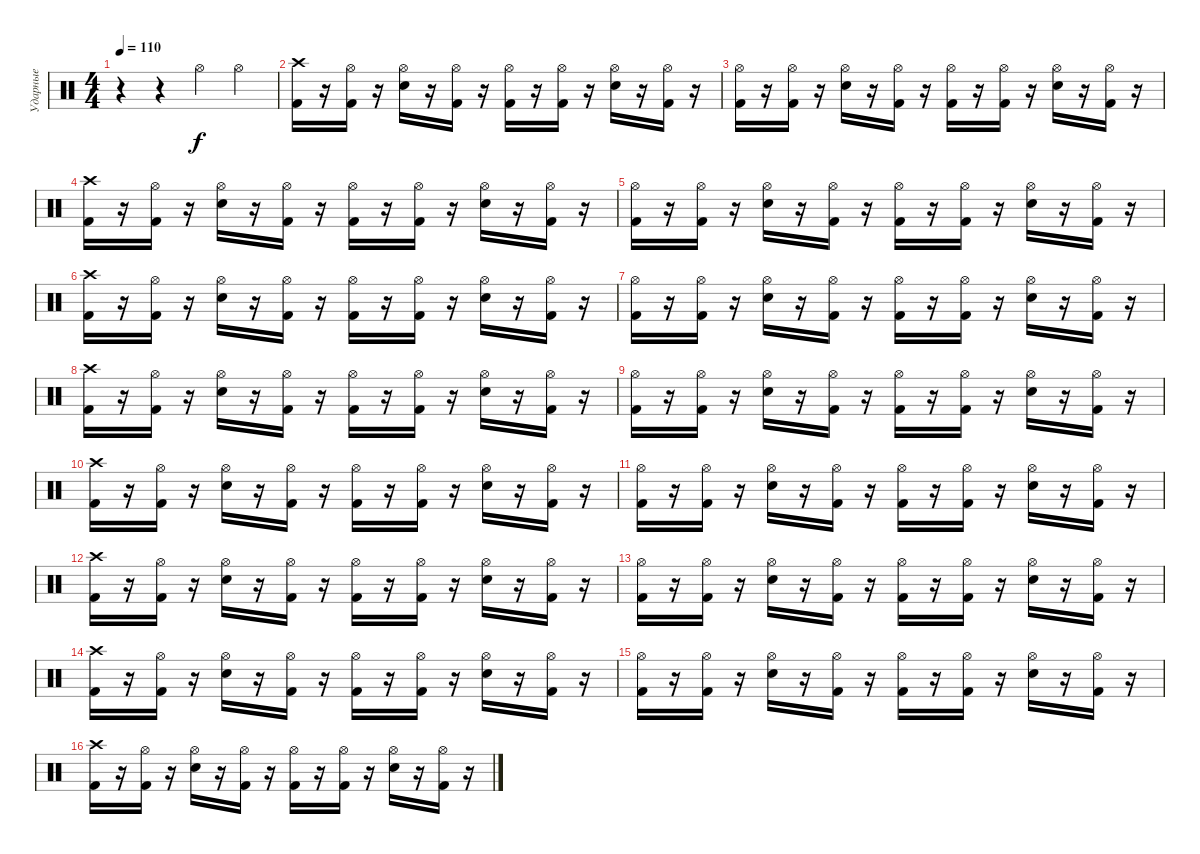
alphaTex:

\track ("Ударные" "Ударные") {instrument percussion}
\staff {score}
\articulation defaults
\ts (4 4)
\tempo 110
\clef neutral
\ks c
r.4{dy f} r.4 "Hi-Hat (open)".4 "Hi-Hat (open)".4 |
("Crash high (hit)" "Kick (hit) 2").16 r.16 ("Hi-Hat (open)" "Kick (hit) 2").16 r.16 ("Hi-Hat (open)" "Electric Snare (hit)").16 r.16 ("Hi-Hat (open)" "Kick (hit) 2").16 r.16 ("Hi-Hat (open)" "Kick (hit) 2").16 r.16 ("Hi-Hat (open)" "Kick (hit) 2").16 r.16 ("Hi-Hat (open)" "Electric Snare (hit)").16 r.16 ("Hi-Hat (open)" "Kick (hit) 2").16 r.16 |
("Hi-Hat (open)" "Kick (hit) 2").16 r.16 ("Hi-Hat (open)" "Kick (hit) 2").16 r.16 ("Hi-Hat (open)" "Electric Snare (hit)").16 r.16 ("Hi-Hat (open)" "Kick (hit) 2").16 r.16 ("Hi-Hat (open)" "Kick (hit) 2").16 r.16 ("Hi-Hat (open)" "Kick (hit) 2").16 r.16 ("Hi-Hat (open)" "Electric Snare (hit)").16 r.16 ("Hi-Hat (open)" "Kick (hit) 2").16 r.16 |
("Crash high (hit)" "Kick (hit) 2").16 r.16 ("Hi-Hat (open)" "Kick (hit) 2").16 r.16 ("Hi-Hat (open)" "Electric Snare (hit)").16 r.16 ("Hi-Hat (open)" "Kick (hit) 2").16 r.16 ("Hi-Hat (open)" "Kick (hit) 2").16 r.16 ("Hi-Hat (open)" "Kick (hit) 2").16 r.16 ("Hi-Hat (open)" "Electric Snare (hit)").16 r.16 ("Hi-Hat (open)" "Kick (hit) 2").16 r.16 |
("Hi-Hat (open)" "Kick (hit) 2").16 r.16 ("Hi-Hat (open)" "Kick (hit) 2").16 r.16 ("Hi-Hat (open)" "Electric Snare (hit)").16 r.16 ("Hi-Hat (open)" "Kick (hit) 2").16 r.16 ("Hi-Hat (open)" "Kick (hit) 2").16 r.16 ("Hi-Hat (open)" "Kick (hit) 2").16 r.16 ("Hi-Hat (open)" "Electric Snare (hit)").16 r.16 ("Hi-Hat (open)" "Kick (hit) 2").16 r.16 |
("Crash high (hit)" "Kick (hit) 2").16 r.16 ("Hi-Hat (open)" "Kick (hit) 2").16 r.16 ("Hi-Hat (open)" "Electric Snare (hit)").16 r.16 ("Hi-Hat (open)" "Kick (hit) 2").16 r.16 ("Hi-Hat (open)" "Kick (hit) 2").16 r.16 ("Hi-Hat (open)" "Kick (hit) 2").16 r.16 ("Hi-Hat (open)" "Electric Snare (hit)").16 r.16 ("Hi-Hat (open)" "Kick (hit) 2").16 r.16 |
("Hi-Hat (open)" "Kick (hit) 2").16 r.16 ("Hi-Hat (open)" "Kick (hit) 2").16 r.16 ("Hi-Hat (open)" "Electric Snare (hit)").16 r.16 ("Hi-Hat (open)" "Kick (hit) 2").16 r.16 ("Hi-Hat (open)" "Kick (hit) 2").16 r.16 ("Hi-Hat (open)" "Kick (hit) 2").16 r.16 ("Hi-Hat (open)" "Electric Snare (hit)").16 r.16 ("Hi-Hat (open)" "Kick (hit) 2").16 r.16 |
("Crash high (hit)" "Kick (hit) 2").16 r.16 ("Hi-Hat (open)" "Kick (hit) 2").16 r.16 ("Hi-Hat (open)" "Electric Snare (hit)").16 r.16 ("Hi-Hat (open)" "Kick (hit) 2").16 r.16 ("Hi-Hat (open)" "Kick (hit) 2").16 r.16 ("Hi-Hat (open)" "Kick (hit) 2").16 r.16 ("Hi-Hat (open)" "Electric Snare (hit)").16 r.16 ("Hi-Hat (open)" "Kick (hit) 2").16 r.16 |
("Hi-Hat (open)" "Kick (hit) 2").16 r.16 ("Hi-Hat (open)" "Kick (hit) 2").16 r.16 ("Hi-Hat (open)" "Electric Snare (hit)").16 r.16 ("Hi-Hat (open)" "Kick (hit) 2").16 r.16 ("Hi-Hat (open)" "Kick (hit) 2").16 r.16 ("Hi-Hat (open)" "Kick (hit) 2").16 r.16 ("Hi-Hat (open)" "Electric Snare (hit)").16 r.16 ("Hi-Hat (open)" "Kick (hit) 2").16 r.16 |
("Crash high (hit)" "Kick (hit) 2").16 r.16 ("Hi-Hat (open)" "Kick (hit) 2").16 r.16 ("Hi-Hat (open)" "Electric Snare (hit)").16 r.16 ("Hi-Hat (open)" "Kick (hit) 2").16 r.16 ("Hi-Hat (open)" "Kick (hit) 2").16 r.16 ("Hi-Hat (open)" "Kick (hit) 2").16 r.16 ("Hi-Hat (open)" "Electric Snare (hit)").16 r.16 ("Hi-Hat (open)" "Kick (hit) 2").16 r.16 |
("Hi-Hat (open)" "Kick (hit) 2").16 r.16 ("Hi-Hat (open)" "Kick (hit) 2").16 r.16 ("Hi-Hat (open)" "Electric Snare (hit)").16 r.16 ("Hi-Hat (open)" "Kick (hit) 2").16 r.16 ("Hi-Hat (open)" "Kick (hit) 2").16 r.16 ("Hi-Hat (open)" "Kick (hit) 2").16 r.16 ("Hi-Hat (open)" "Electric Snare (hit)").16 r.16 ("Hi-Hat (open)" "Kick (hit) 2").16 r.16 |
("Crash high (hit)" "Kick (hit) 2").16 r.16 ("Hi-Hat (open)" "Kick (hit) 2").16 r.16 ("Hi-Hat (open)" "Electric Snare (hit)").16 r.16 ("Hi-Hat (open)" "Kick (hit) 2").16 r.16 ("Hi-Hat (open)" "Kick (hit) 2").16 r.16 ("Hi-Hat (open)" "Kick (hit) 2").16 r.16 ("Hi-Hat (open)" "Electric Snare (hit)").16 r.16 ("Hi-Hat (open)" "Kick (hit) 2").16 r.16 |
("Hi-Hat (open)" "Kick (hit) 2").16 r.16 ("Hi-Hat (open)" "Kick (hit) 2").16 r.16 ("Hi-Hat (open)" "Electric Snare (hit)").16 r.16 ("Hi-Hat (open)" "Kick (hit) 2").16 r.16 ("Hi-Hat (open)" "Kick (hit) 2").16 r.16 ("Hi-Hat (open)" "Kick (hit) 2").16 r.16 ("Hi-Hat (open)" "Electric Snare (hit)").16 r.16 ("Hi-Hat (open)" "Kick (hit) 2").16 r.16 |
("Crash high (hit)" "Kick (hit) 2").16 r.16 ("Hi-Hat (open)" "Kick (hit) 2").16 r.16 ("Hi-Hat (open)" "Electric Snare (hit)").16 r.16 ("Hi-Hat (open)" "Kick (hit) 2").16 r.16 ("Hi-Hat (open)" "Kick (hit) 2").16 r.16 ("Hi-Hat (open)" "Kick (hit) 2").16 r.16 ("Hi-Hat (open)" "Electric Snare (hit)").16 r.16 ("Hi-Hat (open)" "Kick (hit) 2").16 r.16 |
("Hi-Hat (open)" "Kick (hit) 2").16 r.16 ("Hi-Hat (open)" "Kick (hit) 2").16 r.16 ("Hi-Hat (open)" "Electric Snare (hit)").16 r.16 ("Hi-Hat (open)" "Kick (hit) 2").16 r.16 ("Hi-Hat (open)" "Kick (hit) 2").16 r.16 ("Hi-Hat (open)" "Kick (hit) 2").16 r.16 ("Hi-Hat (open)" "Electric Snare (hit)").16 r.16 ("Hi-Hat (open)" "Kick (hit) 2").16 r.16 |
("Crash high (hit)" "Kick (hit) 2").16 r.16 ("Hi-Hat (open)" "Kick (hit) 2").16 r.16 ("Hi-Hat (open)" "Electric Snare (hit)").16 r.16 ("Hi-Hat (open)" "Kick (hit) 2").16 r.16 ("Hi-Hat (open)" "Kick (hit) 2").16 r.16 ("Hi-Hat (open)" "Kick (hit) 2").16 r.16 ("Hi-Hat (open)" "Electric Snare (hit)").16 r.16 ("Hi-Hat (open)" "Kick (hit) 2").16 r.16
